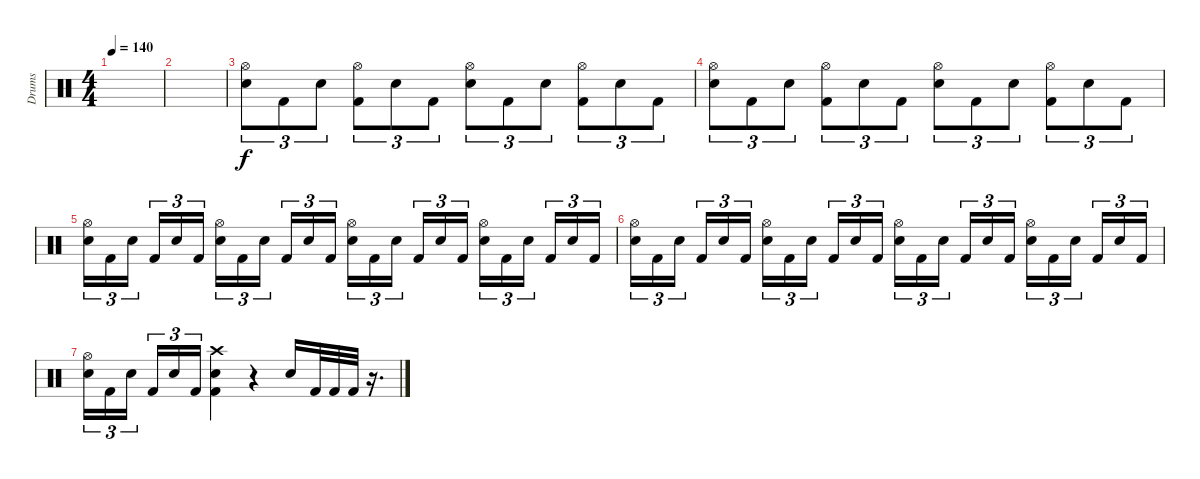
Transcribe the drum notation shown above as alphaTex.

\track ("Drums" "Drums") {instrument percussion}
\staff
\articulation defaults
\ts (4 4)
\tempo 140
\clef neutral
\ks c
|
|
("Hi-Hat (open)" "Electric Snare (hit)").8{tu (3 2)} "Kick (hit) 2".8{tu (3 2)} "Electric Snare (hit)".8{tu (3 2)} ("Hi-Hat (open)" "Kick (hit) 2").8{tu (3 2)} "Electric Snare (hit)".8{tu (3 2)} "Kick (hit) 2".8{tu (3 2)} ("Hi-Hat (open)" "Electric Snare (hit)").8{tu (3 2)} "Kick (hit) 2".8{tu (3 2)} "Electric Snare (hit)".8{tu (3 2)} ("Hi-Hat (open)" "Kick (hit) 2").8{tu (3 2)} "Electric Snare (hit)".8{tu (3 2)} "Kick (hit) 2".8{tu (3 2)} |
("Hi-Hat (open)" "Electric Snare (hit)").8{tu (3 2)} "Kick (hit) 2".8{tu (3 2)} "Electric Snare (hit)".8{tu (3 2)} ("Hi-Hat (open)" "Kick (hit) 2").8{tu (3 2)} "Electric Snare (hit)".8{tu (3 2)} "Kick (hit) 2".8{tu (3 2)} ("Hi-Hat (open)" "Electric Snare (hit)").8{tu (3 2)} "Kick (hit) 2".8{tu (3 2)} "Electric Snare (hit)".8{tu (3 2)} ("Hi-Hat (open)" "Kick (hit) 2").8{tu (3 2)} "Electric Snare (hit)".8{tu (3 2)} "Kick (hit) 2".8{tu (3 2)} |
("Hi-Hat (open)" "Electric Snare (hit)").16{tu (3 2)} "Kick (hit) 2".16{tu (3 2)} "Electric Snare (hit)".16{tu (3 2) beam splitsecondary} "Kick (hit) 2".16{tu (3 2)} "Electric Snare (hit)".16{tu (3 2)} "Kick (hit) 2".16{tu (3 2)} ("Hi-Hat (open)" "Electric Snare (hit)").16{tu (3 2)} "Kick (hit) 2".16{tu (3 2)} "Electric Snare (hit)".16{tu (3 2) beam splitsecondary} "Kick (hit) 2".16{tu (3 2)} "Electric Snare (hit)".16{tu (3 2)} "Kick (hit) 2".16{tu (3 2)} ("Hi-Hat (open)" "Electric Snare (hit)").16{tu (3 2)} "Kick (hit) 2".16{tu (3 2)} "Electric Snare (hit)".16{tu (3 2) beam splitsecondary} "Kick (hit) 2".16{tu (3 2)} "Electric Snare (hit)".16{tu (3 2)} "Kick (hit) 2".16{tu (3 2)} ("Hi-Hat (open)" "Electric Snare (hit)").16{tu (3 2)} "Kick (hit) 2".16{tu (3 2)} "Electric Snare (hit)".16{tu (3 2) beam splitsecondary} "Kick (hit) 2".16{tu (3 2)} "Electric Snare (hit)".16{tu (3 2)} "Kick (hit) 2".16{tu (3 2)} |
("Hi-Hat (open)" "Electric Snare (hit)").16{tu (3 2)} "Kick (hit) 2".16{tu (3 2)} "Electric Snare (hit)".16{tu (3 2) beam splitsecondary} "Kick (hit) 2".16{tu (3 2)} "Electric Snare (hit)".16{tu (3 2)} "Kick (hit) 2".16{tu (3 2)} ("Hi-Hat (open)" "Electric Snare (hit)").16{tu (3 2)} "Kick (hit) 2".16{tu (3 2)} "Electric Snare (hit)".16{tu (3 2) beam splitsecondary} "Kick (hit) 2".16{tu (3 2)} "Electric Snare (hit)".16{tu (3 2)} "Kick (hit) 2".16{tu (3 2)} ("Hi-Hat (open)" "Electric Snare (hit)").16{tu (3 2)} "Kick (hit) 2".16{tu (3 2)} "Electric Snare (hit)".16{tu (3 2) beam splitsecondary} "Kick (hit) 2".16{tu (3 2)} "Electric Snare (hit)".16{tu (3 2)} "Kick (hit) 2".16{tu (3 2)} ("Hi-Hat (open)" "Electric Snare (hit)").16{tu (3 2)} "Kick (hit) 2".16{tu (3 2)} "Electric Snare (hit)".16{tu (3 2) beam splitsecondary} "Kick (hit) 2".16{tu (3 2)} "Electric Snare (hit)".16{tu (3 2)} "Kick (hit) 2".16{tu (3 2)} |
("Hi-Hat (open)" "Electric Snare (hit)").16{tu (3 2)} "Kick (hit) 2".16{tu (3 2)} "Electric Snare (hit)".16{tu (3 2) beam splitsecondary} "Kick (hit) 2".16{tu (3 2)} "Electric Snare (hit)".16{tu (3 2)} "Kick (hit) 2".16{tu (3 2)} ("Crash high (hit)" "Electric Snare (hit)" "Kick (hit) 2").4 r.4 "Electric Snare (hit)".16 "Kick (hit) 2".32 "Kick (hit) 2".32 "Kick (hit) 2".32 r.16{d}
